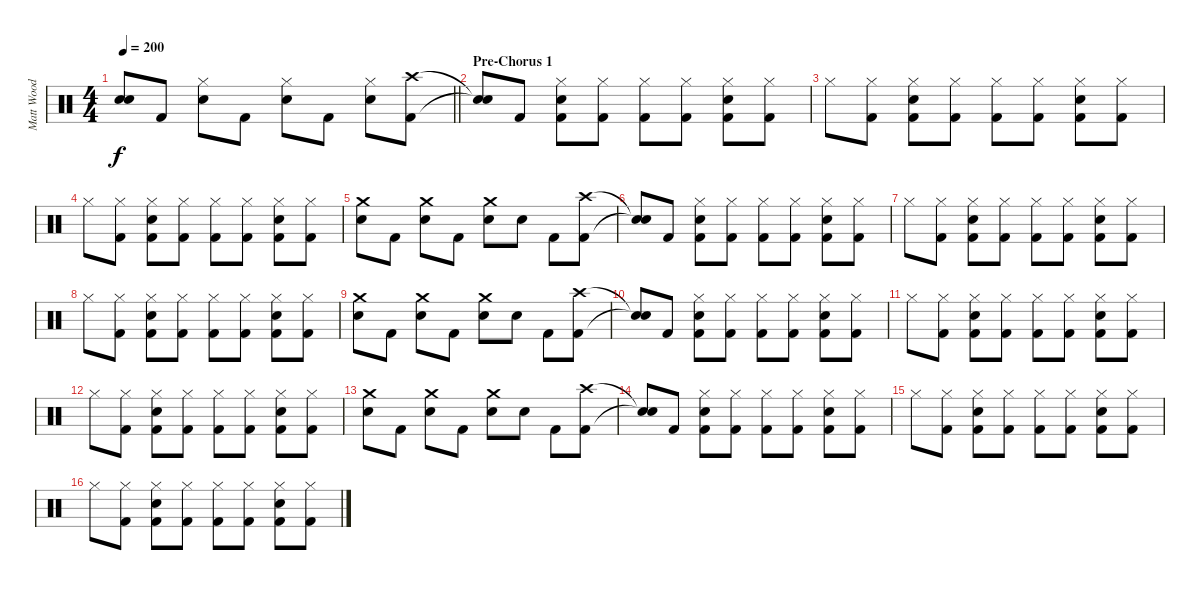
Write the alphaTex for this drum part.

\track ("Matt Wood" "Matt Wood") {instrument percussion}
\staff {score}
\articulation defaults
\ts (4 4)
\tempo 200
\clef neutral
\barLineRight lightlight
\ks c
("Snare (hit)"{t} "Snare (hit)"{t}).8{dy f} "Kick (hit) 2".8 ("Hi-Hat (closed)" "Snare (hit) 2").8 "Kick (hit) 2".8 ("Hi-Hat (closed)" "Snare (hit) 2").8 "Kick (hit) 2".8 ("Hi-Hat (closed)" "Snare (hit) 2").8 ("Crash high (hit)" "Kick (hit) 2").8 |
\section ("" "Pre-Chorus 1")
("Snare (hit)"{t} "Snare (hit)"{t}).8 "Kick (hit) 2".8 ("Hi-Hat (closed)" "Snare (hit) 2" "Kick (hit) 2").8 ("Hi-Hat (closed)" "Kick (hit) 2").8 ("Hi-Hat (closed)" "Kick (hit) 2").8 ("Hi-Hat (closed)" "Kick (hit) 2").8 ("Hi-Hat (closed)" "Snare (hit) 2" "Kick (hit) 2").8 ("Hi-Hat (closed)" "Kick (hit) 2").8 |
"Hi-Hat (closed)".8 ("Hi-Hat (closed)" "Kick (hit) 2").8 ("Hi-Hat (closed)" "Snare (hit) 2" "Kick (hit) 2").8 ("Hi-Hat (closed)" "Kick (hit) 2").8 ("Hi-Hat (closed)" "Kick (hit) 2").8 ("Hi-Hat (closed)" "Kick (hit) 2").8 ("Hi-Hat (closed)" "Snare (hit) 2" "Kick (hit) 2").8 ("Hi-Hat (closed)" "Kick (hit) 2").8 |
"Hi-Hat (closed)".8 ("Hi-Hat (closed)" "Kick (hit) 2").8 ("Hi-Hat (closed)" "Snare (hit) 2" "Kick (hit) 2").8 ("Hi-Hat (closed)" "Kick (hit) 2").8 ("Hi-Hat (closed)" "Kick (hit) 2").8 ("Hi-Hat (closed)" "Kick (hit) 2").8 ("Hi-Hat (closed)" "Snare (hit) 2" "Kick (hit) 2").8 ("Hi-Hat (closed)" "Kick (hit) 2").8 |
("Crash medium (hit)" "Snare (hit) 2").8 "Kick (hit) 2".8 ("Crash medium (hit)" "Snare (hit) 2").8 "Kick (hit) 2".8 ("Crash medium (hit)" "Snare (hit) 2").8 "Snare (hit) 2".8 "Kick (hit) 2".8 ("Crash high (hit)" "Kick (hit) 2").8 |
("Snare (hit)"{t} "Snare (hit)"{t}).8 "Kick (hit) 2".8 ("Hi-Hat (closed)" "Snare (hit) 2" "Kick (hit) 2").8 ("Hi-Hat (closed)" "Kick (hit) 2").8 ("Hi-Hat (closed)" "Kick (hit) 2").8 ("Hi-Hat (closed)" "Kick (hit) 2").8 ("Hi-Hat (closed)" "Snare (hit) 2" "Kick (hit) 2").8 ("Hi-Hat (closed)" "Kick (hit) 2").8 |
"Hi-Hat (closed)".8 ("Hi-Hat (closed)" "Kick (hit) 2").8 ("Hi-Hat (closed)" "Snare (hit) 2" "Kick (hit) 2").8 ("Hi-Hat (closed)" "Kick (hit) 2").8 ("Hi-Hat (closed)" "Kick (hit) 2").8 ("Hi-Hat (closed)" "Kick (hit) 2").8 ("Hi-Hat (closed)" "Snare (hit) 2" "Kick (hit) 2").8 ("Hi-Hat (closed)" "Kick (hit) 2").8 |
"Hi-Hat (closed)".8 ("Hi-Hat (closed)" "Kick (hit) 2").8 ("Hi-Hat (closed)" "Snare (hit) 2" "Kick (hit) 2").8 ("Hi-Hat (closed)" "Kick (hit) 2").8 ("Hi-Hat (closed)" "Kick (hit) 2").8 ("Hi-Hat (closed)" "Kick (hit) 2").8 ("Hi-Hat (closed)" "Snare (hit) 2" "Kick (hit) 2").8 ("Hi-Hat (closed)" "Kick (hit) 2").8 |
("Crash medium (hit)" "Snare (hit) 2").8 "Kick (hit) 2".8 ("Crash medium (hit)" "Snare (hit) 2").8 "Kick (hit) 2".8 ("Crash medium (hit)" "Snare (hit) 2").8 "Snare (hit) 2".8 "Kick (hit) 2".8 ("Crash high (hit)" "Kick (hit) 2").8 |
("Snare (hit)"{t} "Snare (hit)"{t}).8 "Kick (hit) 2".8 ("Hi-Hat (closed)" "Snare (hit) 2" "Kick (hit) 2").8 ("Hi-Hat (closed)" "Kick (hit) 2").8 ("Hi-Hat (closed)" "Kick (hit) 2").8 ("Hi-Hat (closed)" "Kick (hit) 2").8 ("Hi-Hat (closed)" "Snare (hit) 2" "Kick (hit) 2").8 ("Hi-Hat (closed)" "Kick (hit) 2").8 |
"Hi-Hat (closed)".8 ("Hi-Hat (closed)" "Kick (hit) 2").8 ("Hi-Hat (closed)" "Snare (hit) 2" "Kick (hit) 2").8 ("Hi-Hat (closed)" "Kick (hit) 2").8 ("Hi-Hat (closed)" "Kick (hit) 2").8 ("Hi-Hat (closed)" "Kick (hit) 2").8 ("Hi-Hat (closed)" "Snare (hit) 2" "Kick (hit) 2").8 ("Hi-Hat (closed)" "Kick (hit) 2").8 |
"Hi-Hat (closed)".8 ("Hi-Hat (closed)" "Kick (hit) 2").8 ("Hi-Hat (closed)" "Snare (hit) 2" "Kick (hit) 2").8 ("Hi-Hat (closed)" "Kick (hit) 2").8 ("Hi-Hat (closed)" "Kick (hit) 2").8 ("Hi-Hat (closed)" "Kick (hit) 2").8 ("Hi-Hat (closed)" "Snare (hit) 2" "Kick (hit) 2").8 ("Hi-Hat (closed)" "Kick (hit) 2").8 |
("Crash medium (hit)" "Snare (hit) 2").8 "Kick (hit) 2".8 ("Crash medium (hit)" "Snare (hit) 2").8 "Kick (hit) 2".8 ("Crash medium (hit)" "Snare (hit) 2").8 "Snare (hit) 2".8 "Kick (hit) 2".8 ("Crash high (hit)" "Kick (hit) 2").8 |
("Snare (hit)"{t} "Snare (hit)"{t}).8 "Kick (hit) 2".8 ("Hi-Hat (closed)" "Snare (hit) 2" "Kick (hit) 2").8 ("Hi-Hat (closed)" "Kick (hit) 2").8 ("Hi-Hat (closed)" "Kick (hit) 2").8 ("Hi-Hat (closed)" "Kick (hit) 2").8 ("Hi-Hat (closed)" "Snare (hit) 2" "Kick (hit) 2").8 ("Hi-Hat (closed)" "Kick (hit) 2").8 |
"Hi-Hat (closed)".8 ("Hi-Hat (closed)" "Kick (hit) 2").8 ("Hi-Hat (closed)" "Snare (hit) 2" "Kick (hit) 2").8 ("Hi-Hat (closed)" "Kick (hit) 2").8 ("Hi-Hat (closed)" "Kick (hit) 2").8 ("Hi-Hat (closed)" "Kick (hit) 2").8 ("Hi-Hat (closed)" "Snare (hit) 2" "Kick (hit) 2").8 ("Hi-Hat (closed)" "Kick (hit) 2").8 |
"Hi-Hat (closed)".8 ("Hi-Hat (closed)" "Kick (hit) 2").8 ("Hi-Hat (closed)" "Snare (hit) 2" "Kick (hit) 2").8 ("Hi-Hat (closed)" "Kick (hit) 2").8 ("Hi-Hat (closed)" "Kick (hit) 2").8 ("Hi-Hat (closed)" "Kick (hit) 2").8 ("Hi-Hat (closed)" "Snare (hit) 2" "Kick (hit) 2").8 ("Hi-Hat (closed)" "Kick (hit) 2").8
